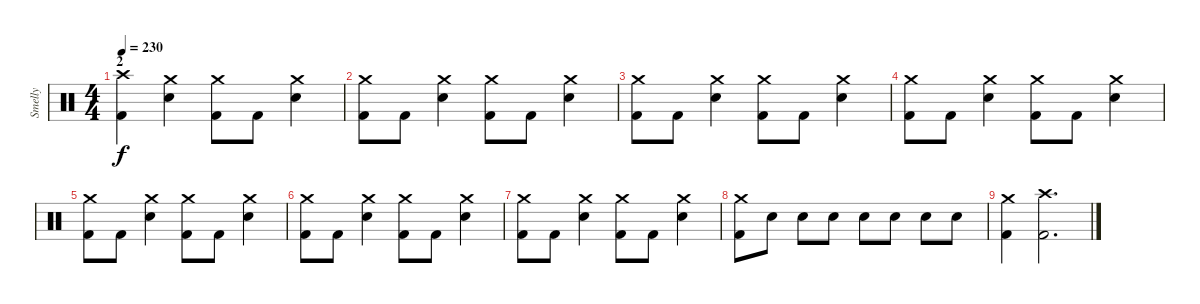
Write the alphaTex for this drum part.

\track ("Smelly" "Smelly") {instrument percussion}
\staff {score}
\articulation defaults
\ts (4 4)
\section ("" "2")
\tempo 230
\clef neutral
\ks c
("Crash high (hit)" "Kick (hit) 2").4{dy f} ("Crash medium (hit)" "Snare (hit) 2").4 ("Crash medium (hit)" "Kick (hit) 2").8 "Kick (hit) 2".8 ("Crash medium (hit)" "Snare (hit) 2").4 |
("Crash medium (hit)" "Kick (hit) 2").8 "Kick (hit) 2".8 ("Crash medium (hit)" "Snare (hit) 2").4 ("Crash medium (hit)" "Kick (hit) 2").8 "Kick (hit) 2".8 ("Crash medium (hit)" "Snare (hit) 2").4 |
("Crash medium (hit)" "Kick (hit) 2").8 "Kick (hit) 2".8 ("Crash medium (hit)" "Snare (hit) 2").4 ("Crash medium (hit)" "Kick (hit) 2").8 "Kick (hit) 2".8 ("Crash medium (hit)" "Snare (hit) 2").4 |
("Crash medium (hit)" "Kick (hit) 2").8 "Kick (hit) 2".8 ("Crash medium (hit)" "Snare (hit) 2").4 ("Crash medium (hit)" "Kick (hit) 2").8 "Kick (hit) 2".8 ("Crash medium (hit)" "Snare (hit) 2").4 |
("Crash medium (hit)" "Kick (hit) 2").8 "Kick (hit) 2".8 ("Crash medium (hit)" "Snare (hit) 2").4 ("Crash medium (hit)" "Kick (hit) 2").8 "Kick (hit) 2".8 ("Crash medium (hit)" "Snare (hit) 2").4 |
("Crash medium (hit)" "Kick (hit) 2").8 "Kick (hit) 2".8 ("Crash medium (hit)" "Snare (hit) 2").4 ("Crash medium (hit)" "Kick (hit) 2").8 "Kick (hit) 2".8 ("Crash medium (hit)" "Snare (hit) 2").4 |
("Crash medium (hit)" "Kick (hit) 2").8 "Kick (hit) 2".8 ("Crash medium (hit)" "Snare (hit) 2").4 ("Crash medium (hit)" "Kick (hit) 2").8 "Kick (hit) 2".8 ("Crash medium (hit)" "Snare (hit) 2").4 |
("Crash medium (hit)" "Kick (hit) 2").8 "Snare (hit) 2".8 "Snare (hit) 2".8 "Snare (hit) 2".8 "Snare (hit) 2".8 "Snare (hit) 2".8 "Snare (hit) 2".8 "Snare (hit) 2".8 |
("Crash medium (hit)" "Kick (hit) 2").4 ("Crash high (hit)" "Kick (hit) 2").2{d}
